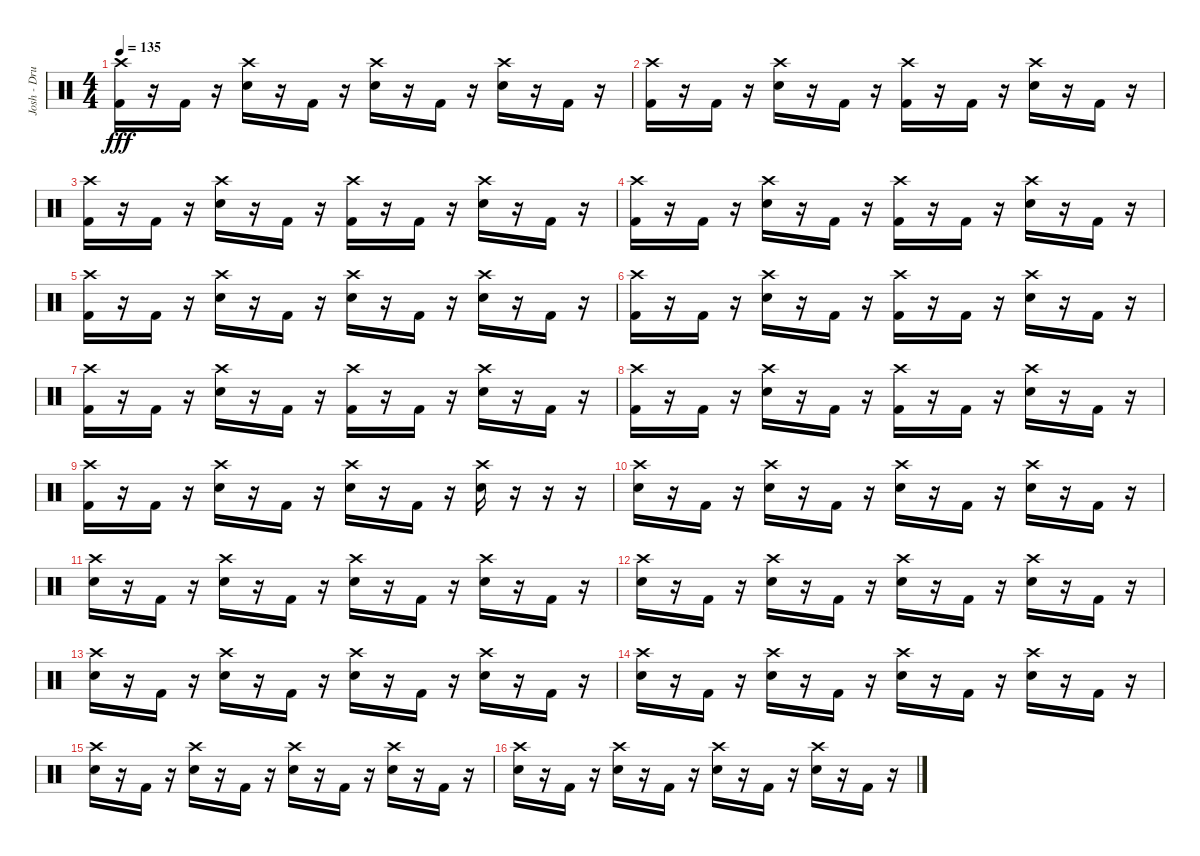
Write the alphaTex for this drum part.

\track ("Josh - Drums" "Josh - Dru") {instrument percussion}
\staff {score}
\articulation defaults
\ts (4 4)
\tempo 135
\clef neutral
\ks c
("Crash high (hit)" "Kick (hit) 2").16{dy fff} r.16 "Kick (hit) 2".16 r.16 ("Crash high (hit)" "Electric Snare (hit)").16 r.16 "Kick (hit) 2".16 r.16 ("Crash high (hit)" "Electric Snare (hit)").16 r.16 "Kick (hit) 2".16 r.16 ("Crash high (hit)" "Electric Snare (hit)").16 r.16 "Kick (hit) 2".16 r.16 |
("Crash high (hit)" "Kick (hit) 2").16 r.16 "Kick (hit) 2".16 r.16 ("Crash high (hit)" "Electric Snare (hit)").16 r.16 "Kick (hit) 2".16 r.16 ("Crash high (hit)" "Kick (hit) 2").16 r.16 "Kick (hit) 2".16 r.16 ("Crash high (hit)" "Electric Snare (hit)").16 r.16 "Kick (hit) 2".16 r.16 |
("Crash high (hit)" "Kick (hit) 2").16 r.16 "Kick (hit) 2".16 r.16 ("Crash high (hit)" "Electric Snare (hit)").16 r.16 "Kick (hit) 2".16 r.16 ("Crash high (hit)" "Kick (hit) 2").16 r.16 "Kick (hit) 2".16 r.16 ("Crash high (hit)" "Electric Snare (hit)").16 r.16 "Kick (hit) 2".16 r.16 |
("Crash high (hit)" "Kick (hit) 2").16 r.16 "Kick (hit) 2".16 r.16 ("Crash high (hit)" "Electric Snare (hit)").16 r.16 "Kick (hit) 2".16 r.16 ("Crash high (hit)" "Kick (hit) 2").16 r.16 "Kick (hit) 2".16 r.16 ("Crash high (hit)" "Electric Snare (hit)").16 r.16 "Kick (hit) 2".16 r.16 |
("Crash high (hit)" "Kick (hit) 2").16 r.16 "Kick (hit) 2".16 r.16 ("Crash high (hit)" "Electric Snare (hit)").16 r.16 "Kick (hit) 2".16 r.16 ("Crash high (hit)" "Electric Snare (hit)").16 r.16 "Kick (hit) 2".16 r.16 ("Crash high (hit)" "Electric Snare (hit)").16 r.16 "Kick (hit) 2".16 r.16 |
("Crash high (hit)" "Kick (hit) 2").16 r.16 "Kick (hit) 2".16 r.16 ("Crash high (hit)" "Electric Snare (hit)").16 r.16 "Kick (hit) 2".16 r.16 ("Crash high (hit)" "Kick (hit) 2").16 r.16 "Kick (hit) 2".16 r.16 ("Crash high (hit)" "Electric Snare (hit)").16 r.16 "Kick (hit) 2".16 r.16 |
("Crash high (hit)" "Kick (hit) 2").16 r.16 "Kick (hit) 2".16 r.16 ("Crash high (hit)" "Electric Snare (hit)").16 r.16 "Kick (hit) 2".16 r.16 ("Crash high (hit)" "Kick (hit) 2").16 r.16 "Kick (hit) 2".16 r.16 ("Crash high (hit)" "Electric Snare (hit)").16 r.16 "Kick (hit) 2".16 r.16 |
("Crash high (hit)" "Kick (hit) 2").16 r.16 "Kick (hit) 2".16 r.16 ("Crash high (hit)" "Electric Snare (hit)").16 r.16 "Kick (hit) 2".16 r.16 ("Crash high (hit)" "Kick (hit) 2").16 r.16 "Kick (hit) 2".16 r.16 ("Crash high (hit)" "Electric Snare (hit)").16 r.16 "Kick (hit) 2".16 r.16 |
("Crash high (hit)" "Kick (hit) 2").16 r.16 "Kick (hit) 2".16 r.16 ("Crash high (hit)" "Electric Snare (hit)").16 r.16 "Kick (hit) 2".16 r.16 ("Crash high (hit)" "Electric Snare (hit)").16 r.16 "Kick (hit) 2".16 r.16 ("Crash high (hit)" "Electric Snare (hit)").16 r.16 r.16 r.16 |
\section ("" "")
("Crash high (hit)" "Electric Snare (hit)").16 r.16 "Kick (hit) 2".16 r.16 ("Crash high (hit)" "Electric Snare (hit)").16 r.16 "Kick (hit) 2".16 r.16 ("Crash high (hit)" "Electric Snare (hit)").16 r.16 "Kick (hit) 2".16 r.16 ("Crash high (hit)" "Electric Snare (hit)").16 r.16 "Kick (hit) 2".16 r.16 |
("Crash high (hit)" "Electric Snare (hit)").16 r.16 "Kick (hit) 2".16 r.16 ("Crash high (hit)" "Electric Snare (hit)").16 r.16 "Kick (hit) 2".16 r.16 ("Crash high (hit)" "Electric Snare (hit)").16 r.16 "Kick (hit) 2".16 r.16 ("Crash high (hit)" "Electric Snare (hit)").16 r.16 "Kick (hit) 2".16 r.16 |
("Crash high (hit)" "Electric Snare (hit)").16 r.16 "Kick (hit) 2".16 r.16 ("Crash high (hit)" "Electric Snare (hit)").16 r.16 "Kick (hit) 2".16 r.16 ("Crash high (hit)" "Electric Snare (hit)").16 r.16 "Kick (hit) 2".16 r.16 ("Crash high (hit)" "Electric Snare (hit)").16 r.16 "Kick (hit) 2".16 r.16 |
("Crash high (hit)" "Electric Snare (hit)").16 r.16 "Kick (hit) 2".16 r.16 ("Crash high (hit)" "Electric Snare (hit)").16 r.16 "Kick (hit) 2".16 r.16 ("Crash high (hit)" "Electric Snare (hit)").16 r.16 "Kick (hit) 2".16 r.16 ("Crash high (hit)" "Electric Snare (hit)").16 r.16 "Kick (hit) 2".16 r.16 |
("Crash high (hit)" "Electric Snare (hit)").16 r.16 "Kick (hit) 2".16 r.16 ("Crash high (hit)" "Electric Snare (hit)").16 r.16 "Kick (hit) 2".16 r.16 ("Crash high (hit)" "Electric Snare (hit)").16 r.16 "Kick (hit) 2".16 r.16 ("Crash high (hit)" "Electric Snare (hit)").16 r.16 "Kick (hit) 2".16 r.16 |
("Crash high (hit)" "Electric Snare (hit)").16 r.16 "Kick (hit) 2".16 r.16 ("Crash high (hit)" "Electric Snare (hit)").16 r.16 "Kick (hit) 2".16 r.16 ("Crash high (hit)" "Electric Snare (hit)").16 r.16 "Kick (hit) 2".16 r.16 ("Crash high (hit)" "Electric Snare (hit)").16 r.16 "Kick (hit) 2".16 r.16 |
("Crash high (hit)" "Electric Snare (hit)").16 r.16 "Kick (hit) 2".16 r.16 ("Crash high (hit)" "Electric Snare (hit)").16 r.16 "Kick (hit) 2".16 r.16 ("Crash high (hit)" "Electric Snare (hit)").16 r.16 "Kick (hit) 2".16 r.16 ("Crash high (hit)" "Electric Snare (hit)").16 r.16 "Kick (hit) 2".16 r.16
